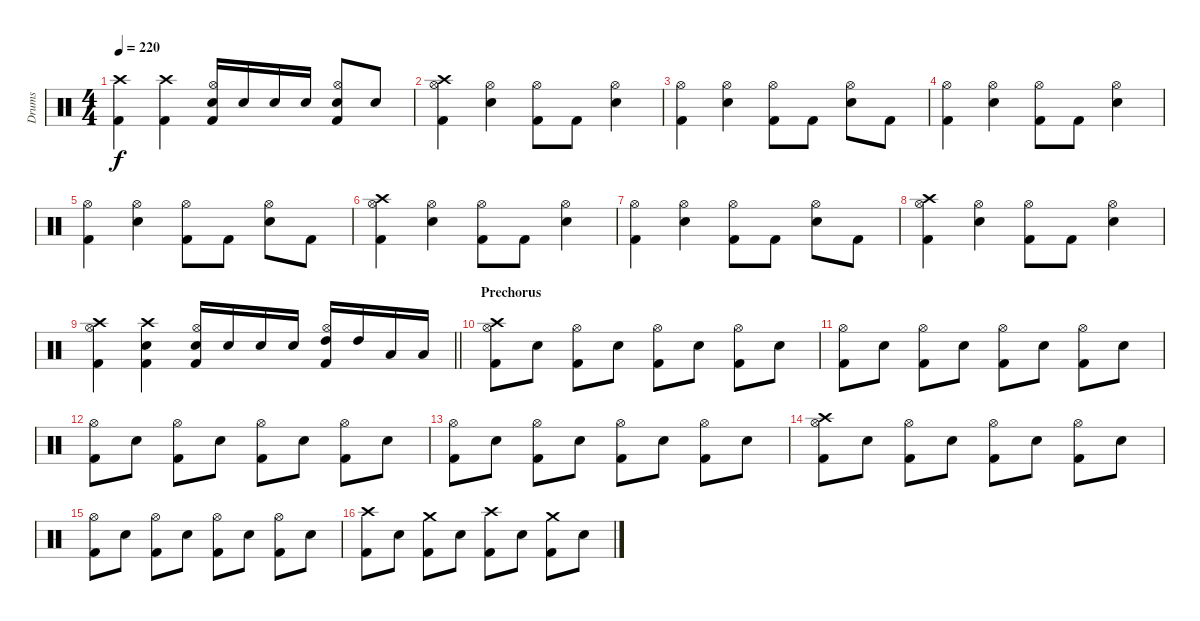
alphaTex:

\track ("Drums" "Drums") {instrument percussion}
\staff {score}
\articulation defaults
\ts (4 4)
\tempo 220
\clef neutral
\ks c
("Crash high (hit)" "Kick (hit) 2").4{dy f} ("Crash high (hit)" "Kick (hit) 2").4 ("Hi-Hat (open)" "Snare (hit) 2" "Kick (hit) 2").16 "Snare (hit) 2".16 "Snare (hit) 2".16 "Snare (hit) 2".16 ("Hi-Hat (open)" "Snare (hit) 2" "Kick (hit) 2").8 "Snare (hit) 2".8 |
("Crash high (hit)" "Hi-Hat (open)" "Kick (hit) 2").4 ("Hi-Hat (open)" "Snare (hit) 2").4 ("Hi-Hat (open)" "Kick (hit) 2").8 "Kick (hit) 2".8 ("Hi-Hat (open)" "Snare (hit) 2").4 |
("Hi-Hat (open)" "Kick (hit) 2").4 ("Hi-Hat (open)" "Snare (hit) 2").4 ("Hi-Hat (open)" "Kick (hit) 2").8 "Kick (hit) 2".8 ("Hi-Hat (open)" "Snare (hit) 2").8 "Kick (hit) 2".8 |
("Hi-Hat (open)" "Kick (hit) 2").4 ("Hi-Hat (open)" "Snare (hit) 2").4 ("Hi-Hat (open)" "Kick (hit) 2").8 "Kick (hit) 2".8 ("Hi-Hat (open)" "Snare (hit) 2").4 |
("Hi-Hat (open)" "Kick (hit) 2").4 ("Hi-Hat (open)" "Snare (hit) 2").4 ("Hi-Hat (open)" "Kick (hit) 2").8 "Kick (hit) 2".8 ("Hi-Hat (open)" "Snare (hit) 2").8 "Kick (hit) 2".8 |
("Crash high (hit)" "Hi-Hat (open)" "Kick (hit) 2").4 ("Hi-Hat (open)" "Snare (hit) 2").4 ("Hi-Hat (open)" "Kick (hit) 2").8 "Kick (hit) 2".8 ("Hi-Hat (open)" "Snare (hit) 2").4 |
("Hi-Hat (open)" "Kick (hit) 2").4 ("Hi-Hat (open)" "Snare (hit) 2").4 ("Hi-Hat (open)" "Kick (hit) 2").8 "Kick (hit) 2".8 ("Hi-Hat (open)" "Snare (hit) 2").8 "Kick (hit) 2".8 |
("Crash high (hit)" "Hi-Hat (open)" "Kick (hit) 2").4 ("Hi-Hat (open)" "Snare (hit) 2").4 ("Hi-Hat (open)" "Kick (hit) 2").8 "Kick (hit) 2".8 ("Hi-Hat (open)" "Snare (hit) 2").4 |
\barLineRight lightlight
("Crash high (hit)" "Hi-Hat (open)" "Kick (hit) 2").4 ("Crash high (hit)" "Snare (hit) 2" "Kick (hit) 2").4 ("Hi-Hat (open)" "Snare (hit) 2" "Kick (hit) 2").16 "Snare (hit) 2".16 "Snare (hit) 2".16 "Snare (hit) 2".16 ("Hi-Hat (open)" "High Tom (hit)" "Kick (hit) 2").16 "High Tom (hit)".16 "Low Tom (hit)".16 "Low Tom (hit)".16 |
\section ("" "Prechorus")
("Crash high (hit)" "Hi-Hat (open)" "Kick (hit) 2").8 "Snare (hit) 2".8 ("Hi-Hat (open)" "Kick (hit) 2").8 "Snare (hit) 2".8 ("Hi-Hat (open)" "Kick (hit) 2").8 "Snare (hit) 2".8 ("Hi-Hat (open)" "Kick (hit) 2").8 "Snare (hit) 2".8 |
("Hi-Hat (open)" "Kick (hit) 2").8 "Snare (hit) 2".8 ("Hi-Hat (open)" "Kick (hit) 2").8 "Snare (hit) 2".8 ("Hi-Hat (open)" "Kick (hit) 2").8 "Snare (hit) 2".8 ("Hi-Hat (open)" "Kick (hit) 2").8 "Snare (hit) 2".8 |
("Hi-Hat (open)" "Kick (hit) 2").8 "Snare (hit) 2".8 ("Hi-Hat (open)" "Kick (hit) 2").8 "Snare (hit) 2".8 ("Hi-Hat (open)" "Kick (hit) 2").8 "Snare (hit) 2".8 ("Hi-Hat (open)" "Kick (hit) 2").8 "Snare (hit) 2".8 |
("Hi-Hat (open)" "Kick (hit) 2").8 "Snare (hit) 2".8 ("Hi-Hat (open)" "Kick (hit) 2").8 "Snare (hit) 2".8 ("Hi-Hat (open)" "Kick (hit) 2").8 "Snare (hit) 2".8 ("Hi-Hat (open)" "Kick (hit) 2").8 "Snare (hit) 2".8 |
("Crash high (hit)" "Hi-Hat (open)" "Kick (hit) 2").8 "Snare (hit) 2".8 ("Hi-Hat (open)" "Kick (hit) 2").8 "Snare (hit) 2".8 ("Hi-Hat (open)" "Kick (hit) 2").8 "Snare (hit) 2".8 ("Hi-Hat (open)" "Kick (hit) 2").8 "Snare (hit) 2".8 |
("Hi-Hat (open)" "Kick (hit) 2").8 "Snare (hit) 2".8 ("Hi-Hat (open)" "Kick (hit) 2").8 "Snare (hit) 2".8 ("Hi-Hat (open)" "Kick (hit) 2").8 "Snare (hit) 2".8 ("Hi-Hat (open)" "Kick (hit) 2").8 "Snare (hit) 2".8 |
("Crash high (hit)" "Kick (hit) 2").8 "Snare (hit) 2".8 ("Crash medium (hit)" "Kick (hit) 2").8 "Snare (hit) 2".8 ("Crash high (hit)" "Kick (hit) 2").8 "Snare (hit) 2".8 ("Crash medium (hit)" "Kick (hit) 2").8 "Snare (hit) 2".8
